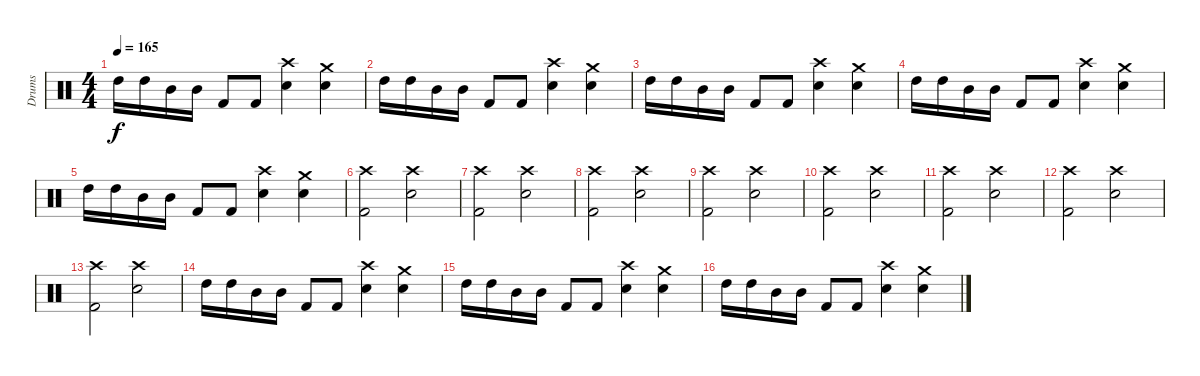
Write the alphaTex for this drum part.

\track ("Drums" "Drums") {instrument percussion}
\staff {score}
\articulation defaults
\ts (4 4)
\tempo 165
\clef neutral
\ks c "High Tom (hit)".16{dy f} "High Tom (hit)".16 "Mid Tom (hit)".16 "Mid Tom (hit)".16 "Kick (hit) 2".8 "Kick (hit) 2".8
("Crash high (hit)" "Electric Snare (hit)").4 ("Crash medium (hit)" "Electric Snare (hit)").4 |
"High Tom (hit)".16 "High Tom (hit)".16 "Mid Tom (hit)".16 "Mid Tom (hit)".16 "Kick (hit) 2".8 "Kick (hit) 2".8 ("Crash high (hit)" "Electric Snare (hit)").4 ("Crash medium (hit)" "Electric Snare (hit)").4 |
"High Tom (hit)".16 "High Tom (hit)".16 "Mid Tom (hit)".16 "Mid Tom (hit)".16 "Kick (hit) 2".8 "Kick (hit) 2".8 ("Crash high (hit)" "Electric Snare (hit)").4 ("Crash medium (hit)" "Electric Snare (hit)").4 |
"High Tom (hit)".16 "High Tom (hit)".16 "Mid Tom (hit)".16 "Mid Tom (hit)".16 "Kick (hit) 2".8 "Kick (hit) 2".8 ("Crash high (hit)" "Electric Snare (hit)").4 ("Crash medium (hit)" "Electric Snare (hit)").4 |
"High Tom (hit)".16 "High Tom (hit)".16 "Mid Tom (hit)".16 "Mid Tom (hit)".16 "Kick (hit) 2".8 "Kick (hit) 2".8 ("Crash high (hit)" "Electric Snare (hit)").4 ("Crash medium (hit)" "Electric Snare (hit)").4 |
("Crash high (hit)" "Kick (hit) 2").2 ("Crash high (hit)" "Electric Snare (hit)").2 |
("Crash high (hit)" "Kick (hit) 2").2 ("Crash high (hit)" "Electric Snare (hit)").2 |
("Crash high (hit)" "Kick (hit) 2").2 ("Crash high (hit)" "Electric Snare (hit)").2 |
("Crash high (hit)" "Kick (hit) 2").2 ("Crash high (hit)" "Electric Snare (hit)").2 |
("Crash high (hit)" "Kick (hit) 2").2 ("Crash high (hit)" "Electric Snare (hit)").2 |
("Crash high (hit)" "Kick (hit) 2").2 ("Crash high (hit)" "Electric Snare (hit)").2 |
("Crash high (hit)" "Kick (hit) 2").2 ("Crash high (hit)" "Electric Snare (hit)").2 |
("Crash high (hit)" "Kick (hit) 2").2 ("Crash high (hit)" "Electric Snare (hit)").2 |
"High Tom (hit)".16 "High Tom (hit)".16 "Mid Tom (hit)".16 "Mid Tom (hit)".16 "Kick (hit) 2".8 "Kick (hit) 2".8 ("Crash high (hit)" "Electric Snare (hit)").4 ("Crash medium (hit)" "Electric Snare (hit)").4 |
"High Tom (hit)".16 "High Tom (hit)".16 "Mid Tom (hit)".16 "Mid Tom (hit)".16 "Kick (hit) 2".8 "Kick (hit) 2".8 ("Crash high (hit)" "Electric Snare (hit)").4 ("Crash medium (hit)" "Electric Snare (hit)").4 |
"High Tom (hit)".16 "High Tom (hit)".16 "Mid Tom (hit)".16 "Mid Tom (hit)".16 "Kick (hit) 2".8 "Kick (hit) 2".8 ("Crash high (hit)" "Electric Snare (hit)").4 ("Crash medium (hit)" "Electric Snare (hit)").4
